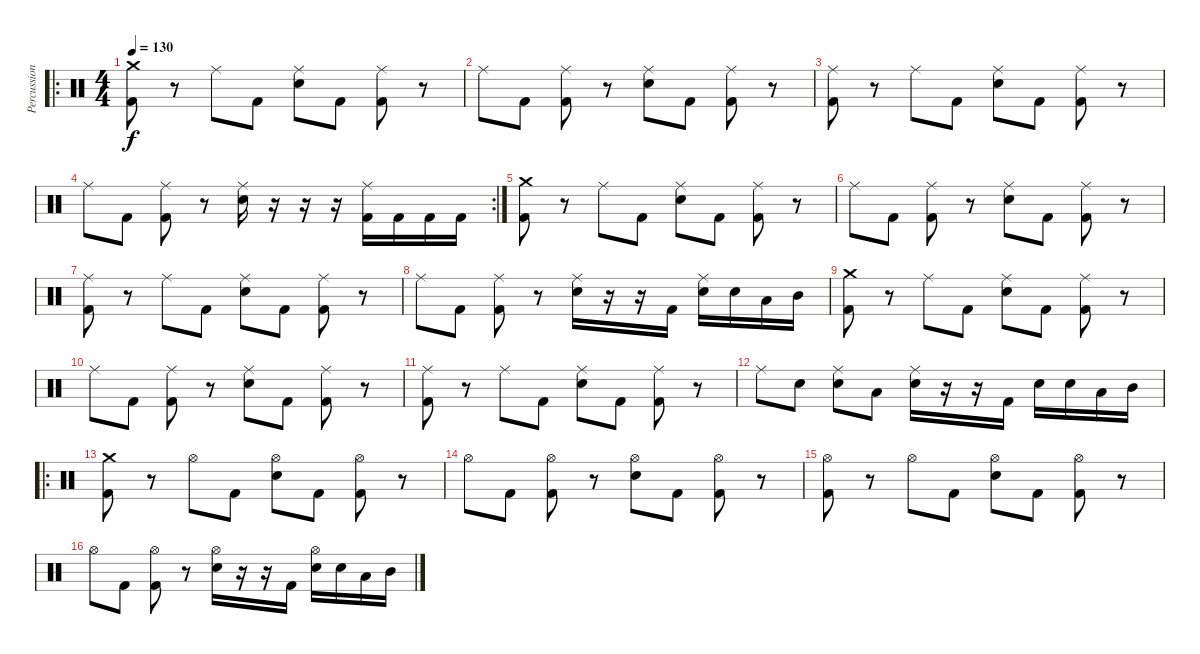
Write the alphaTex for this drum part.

\track ("Percussion" "Percussion") {instrument percussion}
\staff {score}
\articulation defaults
\ro
\ts (4 4)
\tempo 130
\clef neutral
\ks c
("Crash medium (hit)" "Kick (hit) 2").8{dy f} r.8 "Ride (middle)".8 "Kick (hit) 2".8 ("Ride (middle)" "Electric Snare (hit)").8 "Kick (hit) 2".8 ("Ride (middle)" "Kick (hit) 2").8 r.8 |
"Ride (middle)".8 "Kick (hit) 2".8 ("Ride (middle)" "Kick (hit) 2").8 r.8 ("Ride (middle)" "Electric Snare (hit)").8 "Kick (hit) 2".8 ("Ride (middle)" "Kick (hit) 2").8 r.8 |
("Ride (middle)" "Kick (hit) 2").8 r.8 "Ride (middle)".8 "Kick (hit) 2".8 ("Ride (middle)" "Electric Snare (hit)").8 "Kick (hit) 2".8 ("Ride (middle)" "Kick (hit) 2").8 r.8 |
\rc 2 "Ride (middle)".8 "Kick (hit) 2".8
("Ride (middle)" "Kick (hit) 2").8 r.8 ("Ride (middle)" "Electric Snare (hit)").16 r.16 r.16 r.16 ("Ride (middle)" "Kick (hit) 2").16 "Kick (hit) 2".16 "Kick (hit) 2".16 "Kick (hit) 2".16 |
("Crash medium (hit)" "Kick (hit) 2").8 r.8 "Ride (middle)".8 "Kick (hit) 2".8 ("Ride (middle)" "Electric Snare (hit)").8 "Kick (hit) 2".8 ("Ride (middle)" "Kick (hit) 2").8 r.8 |
"Ride (middle)".8 "Kick (hit) 2".8 ("Ride (middle)" "Kick (hit) 2").8 r.8 ("Ride (middle)" "Electric Snare (hit)").8 "Kick (hit) 2".8 ("Ride (middle)" "Kick (hit) 2").8 r.8 |
("Ride (middle)" "Kick (hit) 2").8 r.8 "Ride (middle)".8 "Kick (hit) 2".8 ("Ride (middle)" "Electric Snare (hit)").8 "Kick (hit) 2".8 ("Ride (middle)" "Kick (hit) 2").8 r.8 |
"Ride (middle)".8 "Kick (hit) 2".8 ("Ride (middle)" "Kick (hit) 2").8 r.8 ("Ride (middle)" "Electric Snare (hit)").16 r.16 r.16 "Kick (hit) 2".16 ("Ride (middle)" "Electric Snare (hit)").16 "Electric Snare (hit)".16 "Low Tom (hit)".16 "Mid Tom (hit)".16 |
("Crash medium (hit)" "Kick (hit) 2").8 r.8 "Ride (middle)".8 "Kick (hit) 2".8 ("Ride (middle)" "Electric Snare (hit)").8 "Kick (hit) 2".8 ("Ride (middle)" "Kick (hit) 2").8 r.8 |
"Ride (middle)".8 "Kick (hit) 2".8 ("Ride (middle)" "Kick (hit) 2").8 r.8 ("Ride (middle)" "Electric Snare (hit)").8 "Kick (hit) 2".8 ("Ride (middle)" "Kick (hit) 2").8 r.8 |
("Ride (middle)" "Kick (hit) 2").8 r.8 "Ride (middle)".8 "Kick (hit) 2".8 ("Ride (middle)" "Electric Snare (hit)").8 "Kick (hit) 2".8 ("Ride (middle)" "Kick (hit) 2").8 r.8 |
"Ride (middle)".8 "Electric Snare (hit)".8 ("Ride (middle)" "Electric Snare (hit)").8 "Low Tom (hit)".8 ("Ride (middle)" "Electric Snare (hit)").16 r.16 r.16 "Kick (hit) 2".16 "Electric Snare (hit)".16 "Electric Snare (hit)".16 "Low Tom (hit)".16 "Mid Tom (hit)".16 |
\ro
("Crash medium (hit)" "Kick (hit) 2").8 r.8 "Hi-Hat (open)".8 "Kick (hit) 2".8 ("Hi-Hat (open)" "Electric Snare (hit)").8 "Kick (hit) 2".8 ("Hi-Hat (open)" "Kick (hit) 2").8 r.8 |
"Hi-Hat (open)".8 "Kick (hit) 2".8 ("Hi-Hat (open)" "Kick (hit) 2").8 r.8 ("Hi-Hat (open)" "Electric Snare (hit)").8 "Kick (hit) 2".8 ("Hi-Hat (open)" "Kick (hit) 2").8 r.8 |
("Hi-Hat (open)" "Kick (hit) 2").8 r.8 "Hi-Hat (open)".8 "Kick (hit) 2".8 ("Hi-Hat (open)" "Electric Snare (hit)").8 "Kick (hit) 2".8 ("Hi-Hat (open)" "Kick (hit) 2").8 r.8 |
"Hi-Hat (open)".8 "Kick (hit) 2".8 ("Hi-Hat (open)" "Kick (hit) 2").8 r.8 ("Hi-Hat (open)" "Electric Snare (hit)").16 r.16 r.16 "Kick (hit) 2".16 ("Hi-Hat (open)" "Electric Snare (hit)").16 "Electric Snare (hit)".16 "Low Tom (hit)".16 "Mid Tom (hit)".16
